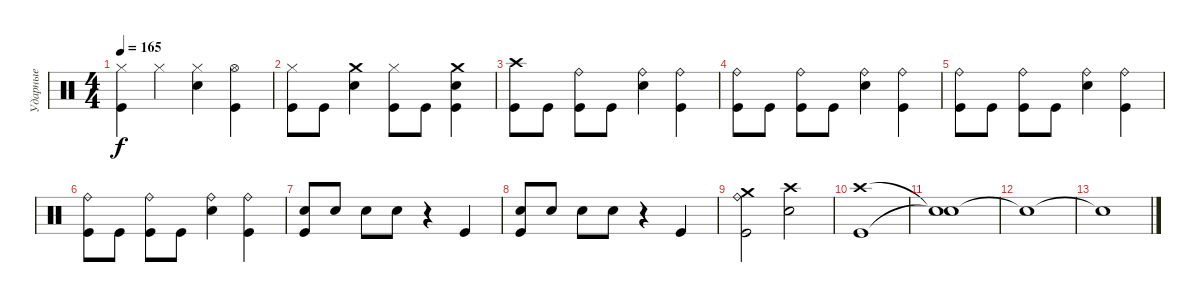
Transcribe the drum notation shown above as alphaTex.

\track ("Ударные" "Ударные") {instrument percussion}
\staff {score}
\articulation defaults
\ts (4 4)
\tempo 165
\clef neutral
\ks c
("Hi-Hat (closed)" "Kick (hit)").4{dy f} "Hi-Hat (closed)".4 ("Hi-Hat (closed)" "Electric Snare (hit)").4 ("Hi-Hat (open)" "Kick (hit)").4 |
("Hi-Hat (closed)" "Kick (hit)").8 "Kick (hit)".8 ("Crash medium (hit)" "Electric Snare (hit)").4 ("Hi-Hat (closed)" "Kick (hit)").8 "Kick (hit)".8 ("Crash medium (hit)" "Electric Snare (hit)" "Kick (hit)").4 |
("Crash high (hit)" "Kick (hit)").8 "Kick (hit)".8 ("Ride (bell)" "Kick (hit)").8 "Kick (hit)".8 ("Ride (bell)" "Electric Snare (hit)").4 ("Ride (bell)" "Kick (hit)").4 |
("Ride (bell)" "Kick (hit)").8 "Kick (hit)".8 ("Ride (bell)" "Kick (hit)").8 "Kick (hit)".8 ("Ride (bell)" "Electric Snare (hit)").4 ("Ride (bell)" "Kick (hit)").4 |
("Ride (bell)" "Kick (hit)").8 "Kick (hit)".8 ("Ride (bell)" "Kick (hit)").8 "Kick (hit)".8 ("Ride (bell)" "Electric Snare (hit)").4 ("Ride (bell)" "Kick (hit)").4 |
("Ride (bell)" "Kick (hit)").8 "Kick (hit)".8 ("Ride (bell)" "Kick (hit)").8 "Kick (hit)".8 ("Ride (bell)" "Electric Snare (hit)").4 ("Ride (bell)" "Kick (hit)").4 |
("Electric Snare (hit)" "Kick (hit)").8 "Electric Snare (hit)".8 "Electric Snare (hit)".8 "Electric Snare (hit)".8 r.4 "Kick (hit)".4 |
("Electric Snare (hit)" "Kick (hit)").8 "Electric Snare (hit)".8 "Electric Snare (hit)".8 "Electric Snare (hit)".8 r.4 "Kick (hit)".4 |
("Crash medium (hit)" "Ride (bell)" "Kick (hit)").2 ("Crash high (hit)" "Electric Snare (hit)").2 |
("Crash high (hit)" "Kick (hit)").1 |
("Snare (hit)"{t} "Snare (hit)"{t}).1 |
"Snare (hit)"{t}.1 |
"Snare (hit)"{t}.1
